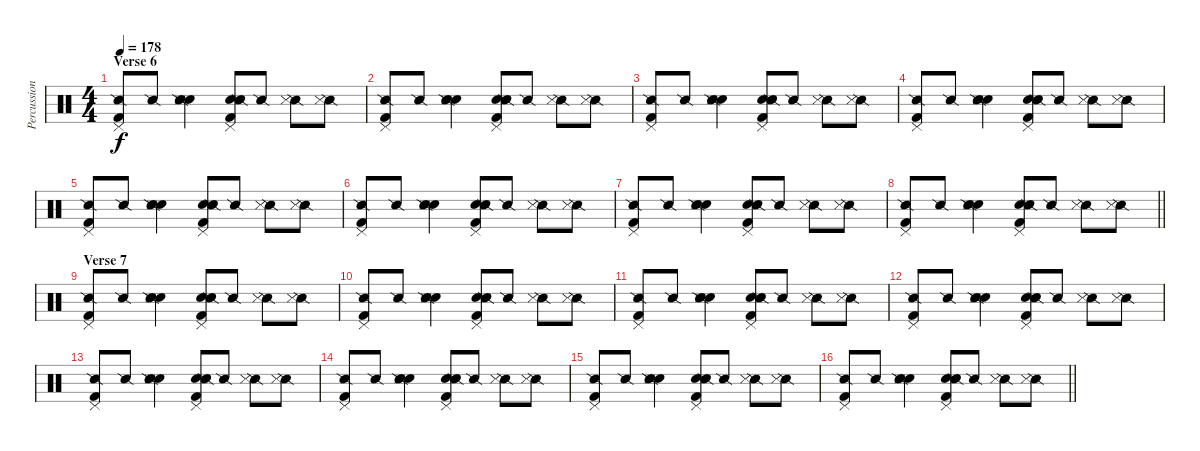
\track ("Percussion" "Percussion") {instrument percussion}
\staff {score}
\articulation defaults
\ts (4 4)
\section ("" "Verse 6")
\tempo 178
\clef neutral
\ks c
("Pedal Hi-Hat (hit)" "Kick (hit) 2" "Snare (side stick) 2").8{dy f} "Snare (side stick) 2".8 ("Hand Clap (hit)" "Hand Clap (hit)" "Snare (side stick) 2" "Metronome (hit)").4 ("Pedal Hi-Hat (hit)" "Hand Clap (hit)" "Hand Clap (hit)" "Kick (hit) 2" "Snare (side stick) 2").8 "Snare (side stick) 2".8 ("Snare (side stick) 2" "Metronome (hit)").8 ("Snare (side stick) 2" "Metronome (hit)").8 |
("Pedal Hi-Hat (hit)" "Kick (hit) 2" "Snare (side stick) 2").8 "Snare (side stick) 2".8 ("Hand Clap (hit)" "Hand Clap (hit)" "Snare (side stick) 2" "Metronome (hit)").4 ("Pedal Hi-Hat (hit)" "Hand Clap (hit)" "Hand Clap (hit)" "Kick (hit) 2" "Snare (side stick) 2").8 "Snare (side stick) 2".8 ("Snare (side stick) 2" "Metronome (hit)").8 ("Snare (side stick) 2" "Metronome (hit)").8 |
("Pedal Hi-Hat (hit)" "Kick (hit) 2" "Snare (side stick) 2").8 "Snare (side stick) 2".8 ("Hand Clap (hit)" "Hand Clap (hit)" "Snare (side stick) 2" "Metronome (hit)").4 ("Pedal Hi-Hat (hit)" "Hand Clap (hit)" "Hand Clap (hit)" "Kick (hit) 2" "Snare (side stick) 2").8 "Snare (side stick) 2".8 ("Snare (side stick) 2" "Metronome (hit)").8 ("Snare (side stick) 2" "Metronome (hit)").8 |
("Pedal Hi-Hat (hit)" "Kick (hit) 2" "Snare (side stick) 2").8 "Snare (side stick) 2".8 ("Hand Clap (hit)" "Hand Clap (hit)" "Snare (side stick) 2" "Metronome (hit)").4 ("Pedal Hi-Hat (hit)" "Hand Clap (hit)" "Hand Clap (hit)" "Kick (hit) 2" "Snare (side stick) 2").8 "Snare (side stick) 2".8 ("Snare (side stick) 2" "Metronome (hit)").8 ("Snare (side stick) 2" "Metronome (hit)").8 |
("Pedal Hi-Hat (hit)" "Kick (hit) 2" "Snare (side stick) 2").8 "Snare (side stick) 2".8 ("Hand Clap (hit)" "Hand Clap (hit)" "Snare (side stick) 2" "Metronome (hit)").4 ("Pedal Hi-Hat (hit)" "Hand Clap (hit)" "Hand Clap (hit)" "Kick (hit) 2" "Snare (side stick) 2").8 "Snare (side stick) 2".8 ("Snare (side stick) 2" "Metronome (hit)").8 ("Snare (side stick) 2" "Metronome (hit)").8 |
("Pedal Hi-Hat (hit)" "Kick (hit) 2" "Snare (side stick) 2").8 "Snare (side stick) 2".8 ("Hand Clap (hit)" "Hand Clap (hit)" "Snare (side stick) 2" "Metronome (hit)").4 ("Pedal Hi-Hat (hit)" "Hand Clap (hit)" "Hand Clap (hit)" "Kick (hit) 2" "Snare (side stick) 2").8 "Snare (side stick) 2".8 ("Snare (side stick) 2" "Metronome (hit)").8 ("Snare (side stick) 2" "Metronome (hit)").8 |
("Pedal Hi-Hat (hit)" "Kick (hit) 2" "Snare (side stick) 2").8 "Snare (side stick) 2".8 ("Hand Clap (hit)" "Hand Clap (hit)" "Snare (side stick) 2" "Metronome (hit)").4 ("Pedal Hi-Hat (hit)" "Hand Clap (hit)" "Hand Clap (hit)" "Kick (hit) 2" "Snare (side stick) 2").8 "Snare (side stick) 2".8 ("Snare (side stick) 2" "Metronome (hit)").8 ("Snare (side stick) 2" "Metronome (hit)").8 |
\barLineRight lightlight
("Pedal Hi-Hat (hit)" "Kick (hit) 2" "Snare (side stick) 2").8 "Snare (side stick) 2".8 ("Hand Clap (hit)" "Hand Clap (hit)" "Snare (side stick) 2" "Metronome (hit)").4 ("Pedal Hi-Hat (hit)" "Hand Clap (hit)" "Hand Clap (hit)" "Kick (hit) 2" "Snare (side stick) 2").8 "Snare (side stick) 2".8 ("Snare (side stick) 2" "Metronome (hit)").8 ("Snare (side stick) 2" "Metronome (hit)").8 |
\section ("" "Verse 7")
("Pedal Hi-Hat (hit)" "Kick (hit) 2" "Snare (side stick) 2").8 "Snare (side stick) 2".8 ("Hand Clap (hit)" "Hand Clap (hit)" "Snare (side stick) 2" "Metronome (hit)").4 ("Pedal Hi-Hat (hit)" "Hand Clap (hit)" "Hand Clap (hit)" "Kick (hit) 2" "Snare (side stick) 2").8 "Snare (side stick) 2".8 ("Snare (side stick) 2" "Metronome (hit)").8 ("Snare (side stick) 2" "Metronome (hit)").8 |
("Pedal Hi-Hat (hit)" "Kick (hit) 2" "Snare (side stick) 2").8 "Snare (side stick) 2".8 ("Hand Clap (hit)" "Hand Clap (hit)" "Snare (side stick) 2" "Metronome (hit)").4 ("Pedal Hi-Hat (hit)" "Hand Clap (hit)" "Hand Clap (hit)" "Kick (hit) 2" "Snare (side stick) 2").8 "Snare (side stick) 2".8 ("Snare (side stick) 2" "Metronome (hit)").8 ("Snare (side stick) 2" "Metronome (hit)").8 |
("Pedal Hi-Hat (hit)" "Kick (hit) 2" "Snare (side stick) 2").8 "Snare (side stick) 2".8 ("Hand Clap (hit)" "Hand Clap (hit)" "Snare (side stick) 2" "Metronome (hit)").4 ("Pedal Hi-Hat (hit)" "Hand Clap (hit)" "Hand Clap (hit)" "Kick (hit) 2" "Snare (side stick) 2").8 "Snare (side stick) 2".8 ("Snare (side stick) 2" "Metronome (hit)").8 ("Snare (side stick) 2" "Metronome (hit)").8 |
("Pedal Hi-Hat (hit)" "Kick (hit) 2" "Snare (side stick) 2").8 "Snare (side stick) 2".8 ("Hand Clap (hit)" "Hand Clap (hit)" "Snare (side stick) 2" "Metronome (hit)").4 ("Pedal Hi-Hat (hit)" "Hand Clap (hit)" "Hand Clap (hit)" "Kick (hit) 2" "Snare (side stick) 2").8 "Snare (side stick) 2".8 ("Snare (side stick) 2" "Metronome (hit)").8 ("Snare (side stick) 2" "Metronome (hit)").8 |
("Pedal Hi-Hat (hit)" "Kick (hit) 2" "Snare (side stick) 2").8 "Snare (side stick) 2".8 ("Hand Clap (hit)" "Hand Clap (hit)" "Snare (side stick) 2" "Metronome (hit)").4 ("Pedal Hi-Hat (hit)" "Hand Clap (hit)" "Hand Clap (hit)" "Kick (hit) 2" "Snare (side stick) 2").8 "Snare (side stick) 2".8 ("Snare (side stick) 2" "Metronome (hit)").8 ("Snare (side stick) 2" "Metronome (hit)").8 |
("Pedal Hi-Hat (hit)" "Kick (hit) 2" "Snare (side stick) 2").8 "Snare (side stick) 2".8 ("Hand Clap (hit)" "Hand Clap (hit)" "Snare (side stick) 2" "Metronome (hit)").4 ("Pedal Hi-Hat (hit)" "Hand Clap (hit)" "Hand Clap (hit)" "Kick (hit) 2" "Snare (side stick) 2").8 "Snare (side stick) 2".8 ("Snare (side stick) 2" "Metronome (hit)").8 ("Snare (side stick) 2" "Metronome (hit)").8 |
("Pedal Hi-Hat (hit)" "Kick (hit) 2" "Snare (side stick) 2").8 "Snare (side stick) 2".8 ("Hand Clap (hit)" "Hand Clap (hit)" "Snare (side stick) 2" "Metronome (hit)").4 ("Pedal Hi-Hat (hit)" "Hand Clap (hit)" "Hand Clap (hit)" "Kick (hit) 2" "Snare (side stick) 2").8 "Snare (side stick) 2".8 ("Snare (side stick) 2" "Metronome (hit)").8 ("Snare (side stick) 2" "Metronome (hit)").8 |
\barLineRight lightlight
("Pedal Hi-Hat (hit)" "Kick (hit) 2" "Snare (side stick) 2").8 "Snare (side stick) 2".8 ("Hand Clap (hit)" "Hand Clap (hit)" "Snare (side stick) 2" "Metronome (hit)").4 ("Pedal Hi-Hat (hit)" "Hand Clap (hit)" "Hand Clap (hit)" "Kick (hit) 2" "Snare (side stick) 2").8 "Snare (side stick) 2".8 ("Snare (side stick) 2" "Metronome (hit)").8 ("Snare (side stick) 2" "Metronome (hit)").8
